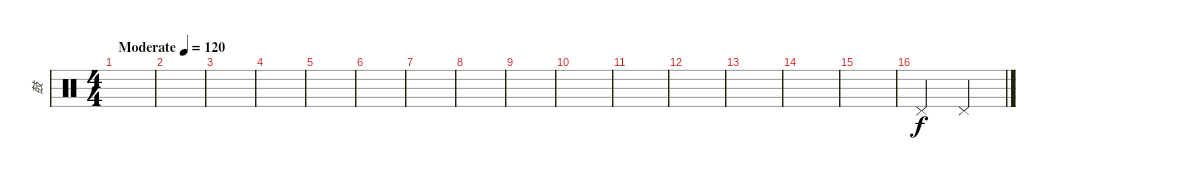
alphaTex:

\track ("鼓" "鼓") {instrument percussion}
\staff {score}
\articulation defaults
\ts (4 4)
\tempo (120 "Moderate")
\clef neutral
\ks c
|
|
|
|
|
|
|
|
|
|
|
|
|
|
|
"Pedal Hi-Hat (hit)".2 "Pedal Hi-Hat (hit)".2
